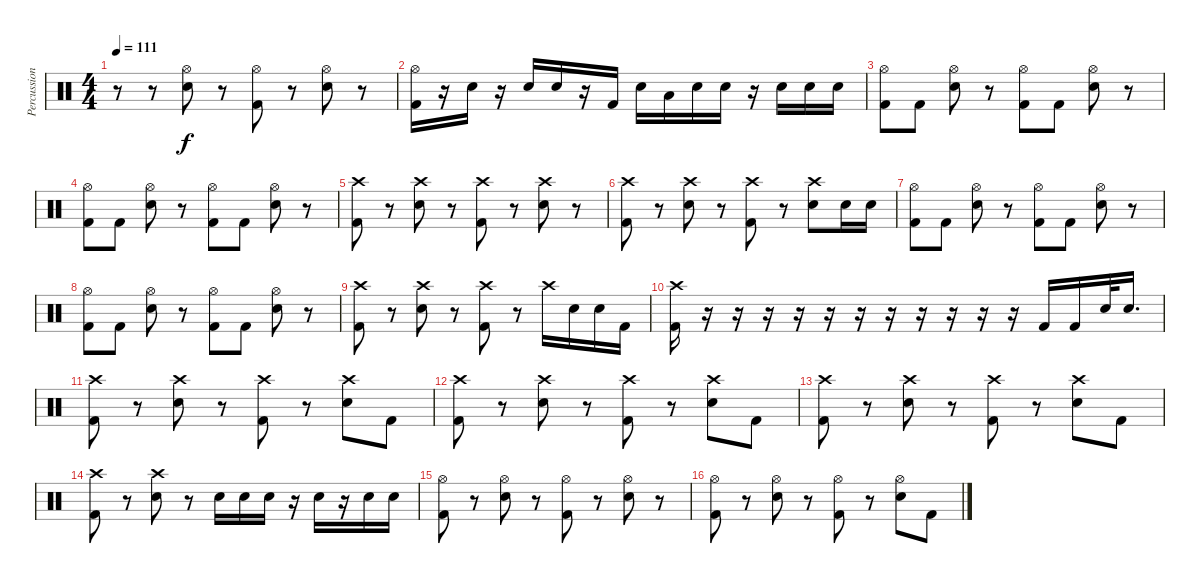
\track ("Percussion" "Percussion") {instrument percussion}
\staff {score}
\articulation defaults
\ts (4 4)
\tempo 111
\clef neutral
\ks c
r.8{dy f} r.8 ("Hi-Hat (open)" "Snare (hit) 2").8 r.8 ("Hi-Hat (open)" "Kick (hit) 2").8 r.8 ("Hi-Hat (open)" "Snare (hit) 2").8 r.8 |
("Hi-Hat (open)" "Kick (hit) 2").16 r.16 "Snare (hit) 2".16 r.16 "Snare (hit) 2".16 "Snare (hit) 2".16 r.16 "Kick (hit) 2".16 "Snare (hit) 2".16 "Low Tom (hit)".16 "Snare (hit) 2".16 "Snare (hit) 2".16 r.16 "Snare (hit) 2".16 "Snare (hit) 2".16 "Snare (hit) 2".16 |
("Hi-Hat (open)" "Kick (hit) 2").8 "Kick (hit) 2".8 ("Hi-Hat (open)" "Snare (hit) 2").8 r.8 ("Hi-Hat (open)" "Kick (hit) 2").8 "Kick (hit) 2".8 ("Hi-Hat (open)" "Snare (hit) 2").8 r.8 |
("Hi-Hat (open)" "Kick (hit) 2").8 "Kick (hit) 2".8 ("Hi-Hat (open)" "Snare (hit) 2").8 r.8 ("Hi-Hat (open)" "Kick (hit) 2").8 "Kick (hit) 2".8 ("Hi-Hat (open)" "Snare (hit) 2").8 r.8 |
("Crash high (hit)" "Kick (hit) 2").8 r.8 ("Crash high (hit)" "Snare (hit) 2").8 r.8 ("Crash high (hit)" "Kick (hit) 2").8 r.8 ("Crash high (hit)" "Snare (hit) 2").8 r.8 |
("Crash high (hit)" "Kick (hit) 2").8 r.8 ("Crash high (hit)" "Snare (hit) 2").8 r.8 ("Crash high (hit)" "Kick (hit) 2").8 r.8 ("Crash high (hit)" "Snare (hit) 2").8 "Snare (hit) 2".16 "Snare (hit) 2".16 |
("Hi-Hat (open)" "Kick (hit) 2").8 "Kick (hit) 2".8 ("Hi-Hat (open)" "Snare (hit) 2").8 r.8 ("Hi-Hat (open)" "Kick (hit) 2").8 "Kick (hit) 2".8 ("Hi-Hat (open)" "Snare (hit) 2").8 r.8 |
("Hi-Hat (open)" "Kick (hit) 2").8 "Kick (hit) 2".8 ("Hi-Hat (open)" "Snare (hit) 2").8 r.8 ("Hi-Hat (open)" "Kick (hit) 2").8 "Kick (hit) 2".8 ("Hi-Hat (open)" "Snare (hit) 2").8 r.8 |
("Crash high (hit)" "Kick (hit) 2").8 r.8 ("Crash high (hit)" "Snare (hit) 2").8 r.8 ("Crash high (hit)" "Kick (hit) 2").8 r.8 "Crash high (hit)".16 "Snare (hit) 2".16 "Snare (hit) 2".16 "Kick (hit) 2".16 |
("Crash high (hit)" "Kick (hit) 2").16 r.16 r.16 r.16 r.16 r.16 r.16 r.16 r.16 r.16 r.16 r.16 "Kick (hit) 2".16 "Kick (hit) 2".16 "Snare (hit) 2".32 "Snare (hit) 2".16{d} |
("Crash high (hit)" "Kick (hit) 2").8 r.8 ("Crash high (hit)" "Snare (hit) 2").8 r.8 ("Crash high (hit)" "Kick (hit) 2").8 r.8 ("Crash high (hit)" "Snare (hit) 2").8 "Kick (hit) 2".8 |
("Crash high (hit)" "Kick (hit) 2").8 r.8 ("Crash high (hit)" "Snare (hit) 2").8 r.8 ("Crash high (hit)" "Kick (hit) 2").8 r.8 ("Crash high (hit)" "Snare (hit) 2").8 "Kick (hit) 2".8 |
("Crash high (hit)" "Kick (hit) 2").8 r.8 ("Crash high (hit)" "Snare (hit) 2").8 r.8 ("Crash high (hit)" "Kick (hit) 2").8 r.8 ("Crash high (hit)" "Snare (hit) 2").8 "Kick (hit) 2".8 |
("Crash high (hit)" "Kick (hit) 2").8 r.8 ("Crash high (hit)" "Snare (hit) 2").8 r.8 "Snare (hit) 2".16 "Snare (hit) 2".16 "Snare (hit) 2".16 r.16 "Snare (hit) 2".16 r.16 "Snare (hit) 2".16 "Snare (hit) 2".16 |
("Hi-Hat (open)" "Kick (hit) 2").8 r.8 ("Hi-Hat (open)" "Snare (hit) 2").8 r.8 ("Hi-Hat (open)" "Kick (hit) 2").8 r.8 ("Hi-Hat (open)" "Snare (hit) 2").8 r.8 |
("Hi-Hat (open)" "Kick (hit) 2").8 r.8 ("Hi-Hat (open)" "Snare (hit) 2").8 r.8 ("Hi-Hat (open)" "Kick (hit) 2").8 r.8 ("Hi-Hat (open)" "Snare (hit) 2").8 "Kick (hit) 2".8
